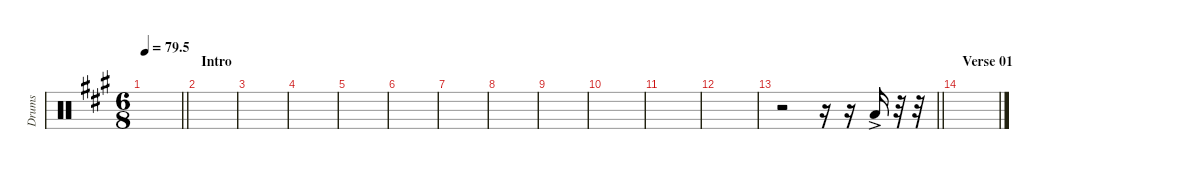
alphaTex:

\defaultSystemsLayout 4
\hideDynamics
\bracketExtendMode nobrackets
\otherSystemsTrackNameOrientation horizontal
\track ("Tom 03" "Drums") {instrument percussion}
\staff {score}
\articulation defaults
\ts (6 8)
\tempo
79.5
\accidentals auto
\clef neutral
\ottava regular
\simile none
\scale
0.474178
\barLineRight lightlight
\ks a
|
\section ("" "Intro")
\scale
0.262911 |
\scale
0.262911 |
\scale
0.333333 |
\scale
0.333333 |
\scale
0.333333 |
\scale
0.333333 |
\scale
0.333333 |
\scale
0.333333 |
\scale
0.333333 |
\scale
0.333333 |
\scale
0.333333 |
\scale
0.333333
\barLineRight lightlight
r.2 r.16 r.16 "Low Tom (hit)"{ac acc forcenatural}.16 r.32 r.32 |
\section ("" "Verse 01")
\scale
0.333333 |
\scale
0.333333 |
\scale
0.333333
